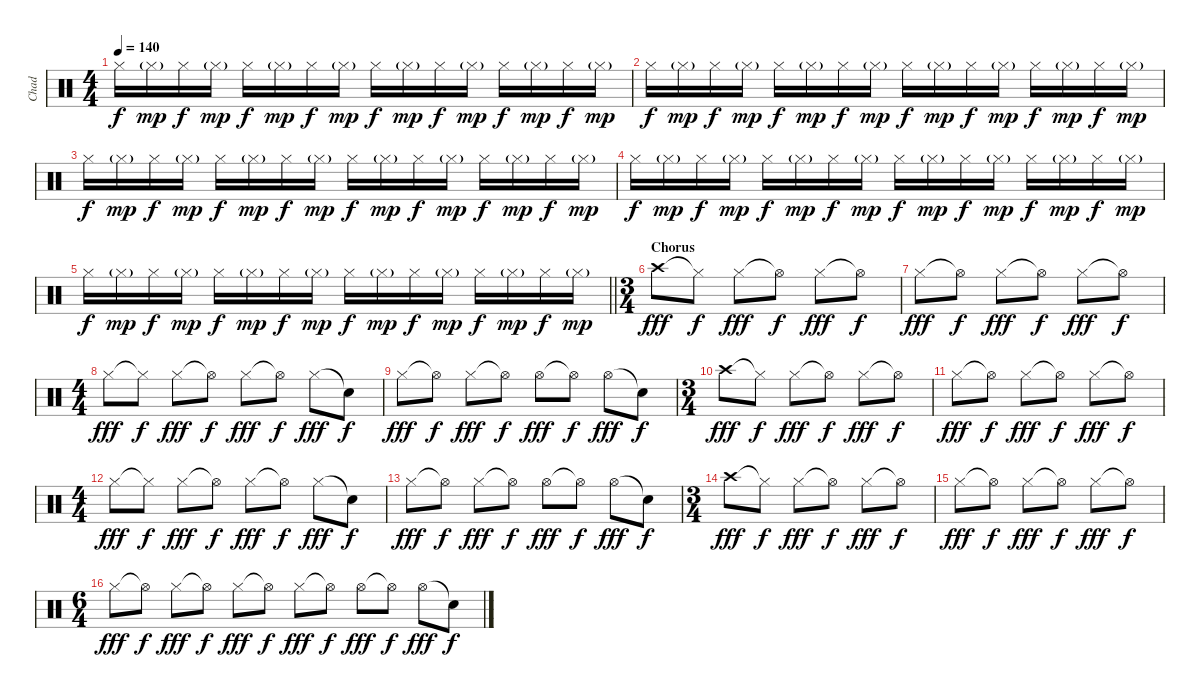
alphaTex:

\track ("Chad" "Chad") {instrument percussion}
\staff {score}
\articulation defaults
\ts (4 4)
\tempo 140
\clef neutral
\ks c "Hi-Hat (closed)".16{dy f} "Hi-Hat (closed)"{g}.16{dy mp} "Hi-Hat (closed)".16{dy f} "Hi-Hat (closed)"{g}.16{dy mp} "Hi-Hat (closed)".16{dy f} "Hi-Hat (closed)"{g}.16{dy mp} "Hi-Hat (closed)".16{dy f} "Hi-Hat (closed)"{g}.16{dy mp} "Hi-Hat (closed)".16{dy f} "Hi-Hat (closed)"{g}.16{dy mp} "Hi-Hat (closed)".16{dy f} "Hi-Hat (closed)"{g}.16{dy mp} "Hi-Hat (closed)".16{dy f} "Hi-Hat (closed)"{g}.16{dy mp} "Hi-Hat (closed)".16{dy f} "Hi-Hat (closed)"{g}.16{dy mp}
|
"Hi-Hat (closed)".16{dy f} "Hi-Hat (closed)"{g}.16{dy mp} "Hi-Hat (closed)".16{dy f} "Hi-Hat (closed)"{g}.16{dy mp} "Hi-Hat (closed)".16{dy f} "Hi-Hat (closed)"{g}.16{dy mp} "Hi-Hat (closed)".16{dy f} "Hi-Hat (closed)"{g}.16{dy mp} "Hi-Hat (closed)".16{dy f} "Hi-Hat (closed)"{g}.16{dy mp} "Hi-Hat (closed)".16{dy f} "Hi-Hat (closed)"{g}.16{dy mp} "Hi-Hat (closed)".16{dy f} "Hi-Hat (closed)"{g}.16{dy mp} "Hi-Hat (closed)".16{dy f} "Hi-Hat (closed)"{g}.16{dy mp} |
"Hi-Hat (closed)".16{dy f} "Hi-Hat (closed)"{g}.16{dy mp} "Hi-Hat (closed)".16{dy f} "Hi-Hat (closed)"{g}.16{dy mp} "Hi-Hat (closed)".16{dy f} "Hi-Hat (closed)"{g}.16{dy mp} "Hi-Hat (closed)".16{dy f} "Hi-Hat (closed)"{g}.16{dy mp} "Hi-Hat (closed)".16{dy f} "Hi-Hat (closed)"{g}.16{dy mp} "Hi-Hat (closed)".16{dy f} "Hi-Hat (closed)"{g}.16{dy mp} "Hi-Hat (closed)".16{dy f} "Hi-Hat (closed)"{g}.16{dy mp} "Hi-Hat (closed)".16{dy f} "Hi-Hat (closed)"{g}.16{dy mp} |
"Hi-Hat (closed)".16{dy f} "Hi-Hat (closed)"{g}.16{dy mp} "Hi-Hat (closed)".16{dy f} "Hi-Hat (closed)"{g}.16{dy mp} "Hi-Hat (closed)".16{dy f} "Hi-Hat (closed)"{g}.16{dy mp} "Hi-Hat (closed)".16{dy f} "Hi-Hat (closed)"{g}.16{dy mp} "Hi-Hat (closed)".16{dy f} "Hi-Hat (closed)"{g}.16{dy mp} "Hi-Hat (closed)".16{dy f} "Hi-Hat (closed)"{g}.16{dy mp} "Hi-Hat (closed)".16{dy f} "Hi-Hat (closed)"{g}.16{dy mp} "Hi-Hat (closed)".16{dy f} "Hi-Hat (closed)"{g}.16{dy mp} |
\barLineRight lightlight "Hi-Hat (closed)".16{dy f} "Hi-Hat (closed)"{g}.16{dy mp} "Hi-Hat (closed)".16{dy f} "Hi-Hat (closed)"{g}.16{dy mp} "Hi-Hat (closed)".16{dy f} "Hi-Hat (closed)"{g}.16{dy mp} "Hi-Hat (closed)".16{dy f} "Hi-Hat (closed)"{g}.16{dy mp} "Hi-Hat (closed)".16{dy f} "Hi-Hat (closed)"{g}.16{dy mp} "Hi-Hat (closed)".16{dy f} "Hi-Hat (closed)"{g}.16{dy mp} "Hi-Hat (closed)".16{dy f} "Hi-Hat (closed)"{g}.16{dy mp} "Hi-Hat (closed)".16{dy f} "Hi-Hat (closed)"{g}.16{dy mp}
|
\ts (3 4)
\section ("" "Chorus")
"Crash high (hit)".8{dy fff} "Hi-Hat (closed)"{t}.8{dy f} "Hi-Hat (closed)".8{dy fff} "Hi-Hat (open)"{t}.8{dy f} "Hi-Hat (closed)".8{dy fff} "Hi-Hat (open)"{t}.8{dy f} |
"Hi-Hat (closed)".8{dy fff} "Hi-Hat (open)"{t}.8{dy f} "Hi-Hat (closed)".8{dy fff} "Hi-Hat (open)"{t}.8{dy f} "Hi-Hat (closed)".8{dy fff} "Hi-Hat (open)"{t}.8{dy f} |
\ts (4 4)
"Hi-Hat (closed)".8{dy fff} "Hi-Hat (closed)"{t}.8{dy f} "Hi-Hat (closed)".8{dy fff} "Hi-Hat (open)"{t}.8{dy f} "Hi-Hat (closed)".8{dy fff} "Hi-Hat (open)"{t}.8{dy f} "Hi-Hat (closed)".8{dy fff} "Snare (hit)"{t}.8{dy f} |
"Hi-Hat (closed)".8{dy fff} "Hi-Hat (open)"{t}.8{dy f} "Hi-Hat (closed)".8{dy fff} "Hi-Hat (open)"{t}.8{dy f} "Hi-Hat (open)".8{dy fff} "Hi-Hat (open)"{t}.8{dy f} "Hi-Hat (open)".8{dy fff} "Snare (hit)"{t}.8{dy f} |
\ts (3 4)
"Crash high (hit)".8{dy fff} "Hi-Hat (closed)"{t}.8{dy f} "Hi-Hat (closed)".8{dy fff} "Hi-Hat (open)"{t}.8{dy f} "Hi-Hat (closed)".8{dy fff} "Hi-Hat (open)"{t}.8{dy f} |
"Hi-Hat (closed)".8{dy fff} "Hi-Hat (open)"{t}.8{dy f} "Hi-Hat (closed)".8{dy fff} "Hi-Hat (open)"{t}.8{dy f} "Hi-Hat (closed)".8{dy fff} "Hi-Hat (open)"{t}.8{dy f} |
\ts (4 4)
"Hi-Hat (closed)".8{dy fff} "Hi-Hat (closed)"{t}.8{dy f} "Hi-Hat (closed)".8{dy fff} "Hi-Hat (open)"{t}.8{dy f} "Hi-Hat (closed)".8{dy fff} "Hi-Hat (open)"{t}.8{dy f} "Hi-Hat (closed)".8{dy fff} "Snare (hit)"{t}.8{dy f} |
"Hi-Hat (closed)".8{dy fff} "Hi-Hat (open)"{t}.8{dy f} "Hi-Hat (closed)".8{dy fff} "Hi-Hat (open)"{t}.8{dy f} "Hi-Hat (open)".8{dy fff} "Hi-Hat (open)"{t}.8{dy f} "Hi-Hat (open)".8{dy fff} "Snare (hit)"{t}.8{dy f} |
\ts (3 4)
"Crash high (hit)".8{dy fff} "Hi-Hat (closed)"{t}.8{dy f} "Hi-Hat (closed)".8{dy fff} "Hi-Hat (open)"{t}.8{dy f} "Hi-Hat (closed)".8{dy fff} "Hi-Hat (open)"{t}.8{dy f} |
"Hi-Hat (closed)".8{dy fff} "Hi-Hat (open)"{t}.8{dy f} "Hi-Hat (closed)".8{dy fff} "Hi-Hat (open)"{t}.8{dy f} "Hi-Hat (closed)".8{dy fff} "Hi-Hat (open)"{t}.8{dy f} |
\ts (6 4)
"Hi-Hat (closed)".8{dy fff} "Hi-Hat (open)"{t}.8{dy f} "Hi-Hat (closed)".8{dy fff} "Hi-Hat (open)"{t}.8{dy f} "Hi-Hat (closed)".8{dy fff} "Hi-Hat (open)"{t}.8{dy f} "Hi-Hat (closed)".8{dy fff} "Hi-Hat (open)"{t}.8{dy f} "Hi-Hat (open)".8{dy fff} "Hi-Hat (open)"{t}.8{dy f} "Hi-Hat (open)".8{dy fff} "Snare (hit)"{t}.8{dy f}
